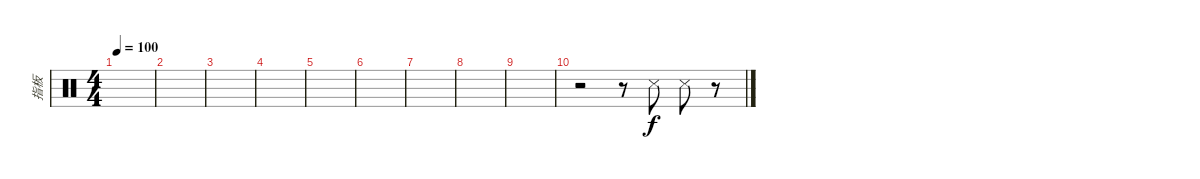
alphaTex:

\track ("指板" "指板") {instrument percussion}
\staff {score}
\articulation defaults
\ts (4 4)
\tempo 100
\clef neutral
\ks c
|
|
|
|
|
|
|
|
|
r.2 r.8 "Snare (side stick) 3".8 "Snare (side stick) 3".8 r.8
